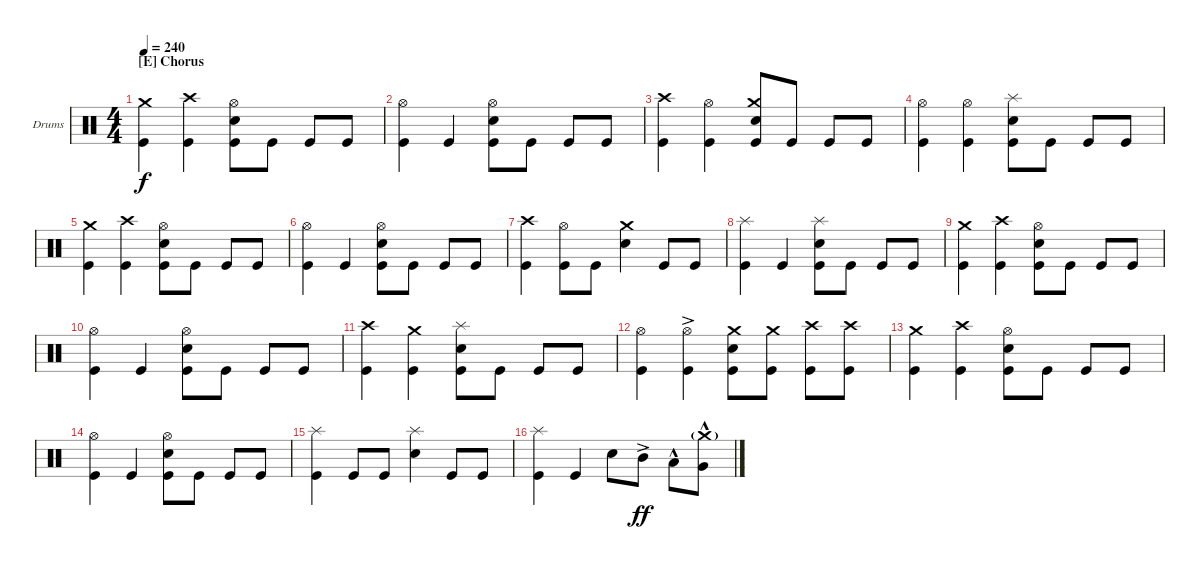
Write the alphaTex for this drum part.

\defaultSystemsLayout 4
\bracketExtendMode groupsimilarinstruments
\firstSystemTrackNameOrientation horizontal
\otherSystemsTrackNameOrientation horizontal
\track ("Drumkit" "Drums") {instrument percussion}
\staff {score}
\articulation defaults
\ts (4 4)
\section ("E" "Chorus")
\tempo 240
\clef neutral
\ks c
("Kick (hit)" "Crash medium (hit)").4{dy f} ("Crash high (hit)" "Kick (hit)").4 ("Snare (hit) 2" "Kick (hit)" "Hi-Hat (open)").8 "Kick (hit)".8 "Kick (hit)".8 "Kick (hit)".8 |
("Kick (hit)" "Hi-Hat (open)").4 "Kick (hit)".4 ("Kick (hit)" "Snare (hit) 2" "Hi-Hat (open)").8 "Kick (hit)".8 "Kick (hit)".8 "Kick (hit)".8 |
("Crash high (hit)" "Kick (hit)").4 ("Kick (hit)" "Hi-Hat (open)").4 ("Snare (hit) 2" "Kick (hit)" "Crash medium (hit)").8 "Kick (hit)".8 "Kick (hit)".8 "Kick (hit)".8 |
("Kick (hit)" "Hi-Hat (open)").4 ("Kick (hit)" "Hi-Hat (open)").4 ("Kick (hit)" "Snare (hit) 2" "Splash (hit)").8 "Kick (hit)".8 "Kick (hit)".8 "Kick (hit)".8 |
("Kick (hit)" "Crash medium (hit)").4 ("Crash high (hit)" "Kick (hit)").4 ("Snare (hit) 2" "Kick (hit)" "Hi-Hat (open)").8 "Kick (hit)".8 "Kick (hit)".8 "Kick (hit)".8 |
("Kick (hit)" "Hi-Hat (open)").4 "Kick (hit)".4 ("Kick (hit)" "Snare (hit) 2" "Hi-Hat (open)").8 "Kick (hit)".8 "Kick (hit)".8 "Kick (hit)".8 |
("Crash high (hit)" "Kick (hit)").4 ("Kick (hit)" "Hi-Hat (open)").8 "Kick (hit)".8 ("Snare (hit) 2" "Crash medium (hit)").4 "Kick (hit)".8 "Kick (hit)".8 |
("Kick (hit)" "Splash (hit)").4 "Kick (hit)".4 ("Kick (hit)" "Snare (hit) 2" "Splash (hit)").8 "Kick (hit)".8 "Kick (hit)".8 "Kick (hit)".8 |
("Kick (hit)" "Crash medium (hit)").4 ("Crash high (hit)" "Kick (hit)").4 ("Snare (hit) 2" "Kick (hit)" "Hi-Hat (open)").8 "Kick (hit)".8 "Kick (hit)".8 "Kick (hit)".8 |
("Kick (hit)" "Hi-Hat (open)").4 "Kick (hit)".4 ("Kick (hit)" "Snare (hit) 2" "Hi-Hat (open)").8 "Kick (hit)".8 "Kick (hit)".8 "Kick (hit)".8 |
("Crash high (hit)" "Kick (hit)").4 ("Kick (hit)" "Crash medium (hit)").4 ("Snare (hit) 2" "Kick (hit)" "Splash (hit)").8 "Kick (hit)".8 "Kick (hit)".8 "Kick (hit)".8 |
("Kick (hit)" "Hi-Hat (open)").4 ("Kick (hit)" "Hi-Hat (open)"{ac}).4 ("Kick (hit)" "Snare (hit) 2" "Crash medium (hit)").8 ("Kick (hit)" "Crash medium (hit)").8 ("Kick (hit)" "Crash high (hit)").8 ("Kick (hit)" "Crash high (hit)").8 |
("Kick (hit)" "Crash medium (hit)").4 ("Crash high (hit)" "Kick (hit)").4 ("Snare (hit) 2" "Kick (hit)" "Hi-Hat (open)").8 "Kick (hit)".8 "Kick (hit)".8 "Kick (hit)".8 |
("Kick (hit)" "Hi-Hat (open)").4 "Kick (hit)".4 ("Kick (hit)" "Snare (hit) 2" "Hi-Hat (open)").8 "Kick (hit)".8 "Kick (hit)".8 "Kick (hit)".8 |
("Kick (hit)" "Splash (hit)").4 "Kick (hit)".8 "Kick (hit)".8 ("Snare (hit) 2" "Splash (hit)").4 "Kick (hit)".8 "Kick (hit)".8 |
("Kick (hit)" "Splash (hit)").4 "Kick (hit)".4 "Snare (hit) 2".8 "Mid Tom (hit)"{ac}.8{dy ff} "Low Tom (hit)"{hac}.8 ("Very Low Tom (hit)"{hac} "Crash medium (hit)"{g}).8
